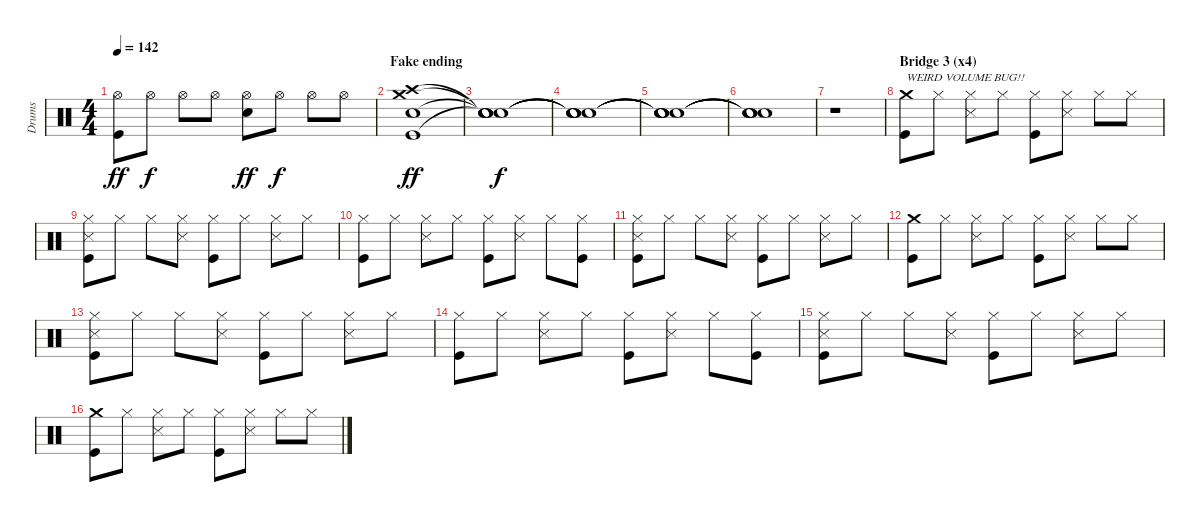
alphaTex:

\track ("Drums" "Drums") {instrument percussion}
\staff {score}
\articulation defaults
\ts (4 4)
\tempo 142
\clef neutral
\ks c
("Hi-Hat (open)" "Kick (hit)").8{dy ff} "Hi-Hat (open)".8{dy f} "Hi-Hat (open)".8 "Hi-Hat (open)".8 ("Hi-Hat (open)" "Snare (hit) 2").8{dy ff} "Hi-Hat (open)".8{dy f} "Hi-Hat (open)".8 "Hi-Hat (open)".8 |
\section ("" "Fake ending")
("Crash medium (hit)" "Crash high (hit)" "Snare (hit) 2" "Kick (hit)").1{dy ff} |
("Snare (hit)"{t} "Snare (hit)"{t} "Snare (hit)"{t} "Snare (hit)"{t}).1{dy f volume 0} |
("Snare (hit)"{t} "Snare (hit)"{t} "Snare (hit)"{t} "Snare (hit)"{t}).1 |
("Snare (hit)"{t} "Snare (hit)"{t} "Snare (hit)"{t} "Snare (hit)"{t}).1 |
("Snare (hit)"{t} "Snare (hit)"{t} "Snare (hit)"{t} "Snare (hit)"{t}).1 |
r.1 |
\section ("" "Bridge 3 (x4)")
("Crash medium (hit)" "Kick (hit)").8{txt "WEIRD VOLUME BUG!!" volume 13} "Hi-Hat (closed)".8 ("Hi-Hat (closed)" "Snare (side stick) 3").8 "Hi-Hat (closed)".8 ("Hi-Hat (closed)" "Kick (hit)").8 ("Hi-Hat (closed)" "Snare (side stick) 3").8 "Hi-Hat (closed)".8 "Hi-Hat (closed)".8 |
("Hi-Hat (closed)" "Snare (side stick) 3" "Kick (hit)").8 "Hi-Hat (closed)".8 "Hi-Hat (closed)".8 ("Hi-Hat (closed)" "Snare (side stick) 3").8 ("Hi-Hat (closed)" "Kick (hit)").8 "Hi-Hat (closed)".8 ("Hi-Hat (closed)" "Snare (side stick) 3").8 "Hi-Hat (closed)".8 |
("Hi-Hat (closed)" "Kick (hit)").8 "Hi-Hat (closed)".8 ("Hi-Hat (closed)" "Snare (side stick) 3").8 "Hi-Hat (closed)".8 ("Hi-Hat (closed)" "Kick (hit)").8 ("Hi-Hat (closed)" "Snare (side stick) 3").8 "Hi-Hat (closed)".8 ("Hi-Hat (closed)" "Kick (hit)").8 |
("Hi-Hat (closed)" "Snare (side stick) 3" "Kick (hit)").8 "Hi-Hat (closed)".8 "Hi-Hat (closed)".8 ("Hi-Hat (closed)" "Snare (side stick) 3").8 ("Hi-Hat (closed)" "Kick (hit)").8 "Hi-Hat (closed)".8 ("Hi-Hat (closed)" "Snare (side stick) 3").8 "Hi-Hat (closed)".8 |
("Crash medium (hit)" "Kick (hit)").8 "Hi-Hat (closed)".8 ("Hi-Hat (closed)" "Snare (side stick) 3").8 "Hi-Hat (closed)".8 ("Hi-Hat (closed)" "Kick (hit)").8 ("Hi-Hat (closed)" "Snare (side stick) 3").8 "Hi-Hat (closed)".8 "Hi-Hat (closed)".8 |
("Hi-Hat (closed)" "Snare (side stick) 3" "Kick (hit)").8 "Hi-Hat (closed)".8 "Hi-Hat (closed)".8 ("Hi-Hat (closed)" "Snare (side stick) 3").8 ("Hi-Hat (closed)" "Kick (hit)").8 "Hi-Hat (closed)".8 ("Hi-Hat (closed)" "Snare (side stick) 3").8 "Hi-Hat (closed)".8 |
("Hi-Hat (closed)" "Kick (hit)").8 "Hi-Hat (closed)".8 ("Hi-Hat (closed)" "Snare (side stick) 3").8 "Hi-Hat (closed)".8 ("Hi-Hat (closed)" "Kick (hit)").8 ("Hi-Hat (closed)" "Snare (side stick) 3").8 "Hi-Hat (closed)".8 ("Hi-Hat (closed)" "Kick (hit)").8 |
("Hi-Hat (closed)" "Snare (side stick) 3" "Kick (hit)").8 "Hi-Hat (closed)".8 "Hi-Hat (closed)".8 ("Hi-Hat (closed)" "Snare (side stick) 3").8 ("Hi-Hat (closed)" "Kick (hit)").8 "Hi-Hat (closed)".8 ("Hi-Hat (closed)" "Snare (side stick) 3").8 "Hi-Hat (closed)".8 |
("Crash medium (hit)" "Kick (hit)").8 "Hi-Hat (closed)".8 ("Hi-Hat (closed)" "Snare (side stick) 3").8 "Hi-Hat (closed)".8 ("Hi-Hat (closed)" "Kick (hit)").8 ("Hi-Hat (closed)" "Snare (side stick) 3").8 "Hi-Hat (closed)".8 "Hi-Hat (closed)".8
